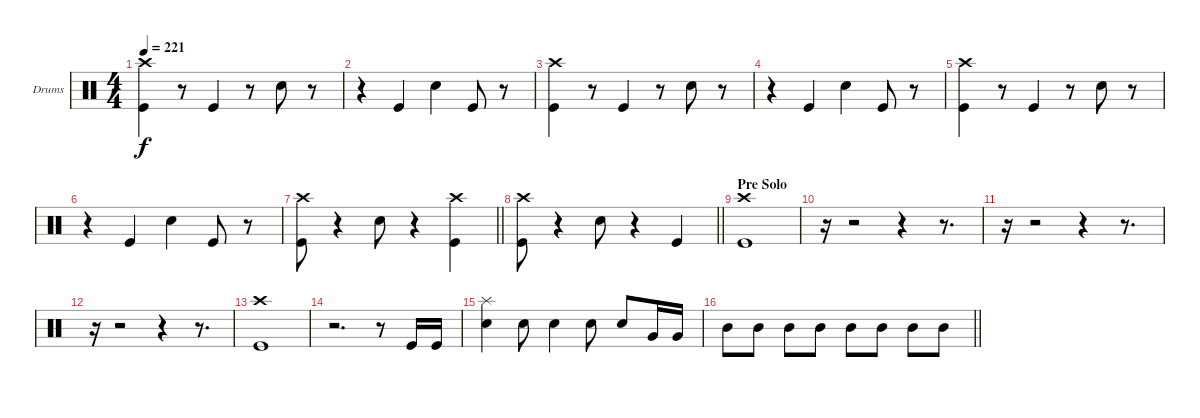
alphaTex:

\bracketExtendMode groupsimilarinstruments
\firstSystemTrackNameOrientation horizontal
\otherSystemsTrackNameOrientation horizontal
\track ("Drumkit" "Drums") {instrument percussion}
\staff {score}
\articulation defaults
\ts (4 4)
\tempo 221
\clef neutral
\ks c
("Crash high (hit)" "Kick (hit)").4{dy f} r.8 "Kick (hit)".4 r.8 "Snare (hit) 2".8 r.8 |
r.4 "Kick (hit)".4 "Snare (hit) 2".4 "Kick (hit)".8 r.8 |
("Crash high (hit)" "Kick (hit)").4 r.8 "Kick (hit)".4 r.8 "Snare (hit) 2".8 r.8 |
r.4 "Kick (hit)".4 "Snare (hit) 2".4 "Kick (hit)".8 r.8 |
("Crash high (hit)" "Kick (hit)").4 r.8 "Kick (hit)".4 r.8 "Snare (hit) 2".8 r.8 |
r.4 "Kick (hit)".4 "Snare (hit) 2".4 "Kick (hit)".8 r.8 |
\barLineRight lightlight
("Crash high (hit)" "Kick (hit)").8 r.4 "Snare (hit) 2".8 r.4 ("Crash high (hit)" "Kick (hit)").4 |
\barLineRight lightlight
("Crash high (hit)" "Kick (hit)").8 r.4 "Snare (hit) 2".8 r.4 "Kick (hit)".4 |
\section ("" "Pre Solo")
("Crash high (hit)" "Kick (hit)").1 |
r.16 r.2 r.4 r.8{d} |
r.16 r.2 r.4 r.8{d} |
r.16 r.2 r.4 r.8{d} |
("Crash high (hit)" "Kick (hit)").1 |
r.2{d} r.8 "Kick (hit)".16 "Kick (hit)".16 |
("Splash (hit)" "Snare (hit) 2").4 "Snare (hit) 2".8 "Snare (hit) 2".4 "Snare (hit) 2".8 "Snare (hit) 2".8 "Very Low Tom (hit)".16 "Very Low Tom (hit)".16 |
\barLineRight lightlight "Mid Tom (hit)".8 "Mid Tom (hit)".8 "Mid Tom (hit)".8 "Mid Tom (hit)".8 "Mid Tom (hit)".8 "Mid Tom (hit)".8 "Mid Tom (hit)".8 "Mid Tom (hit)".8
